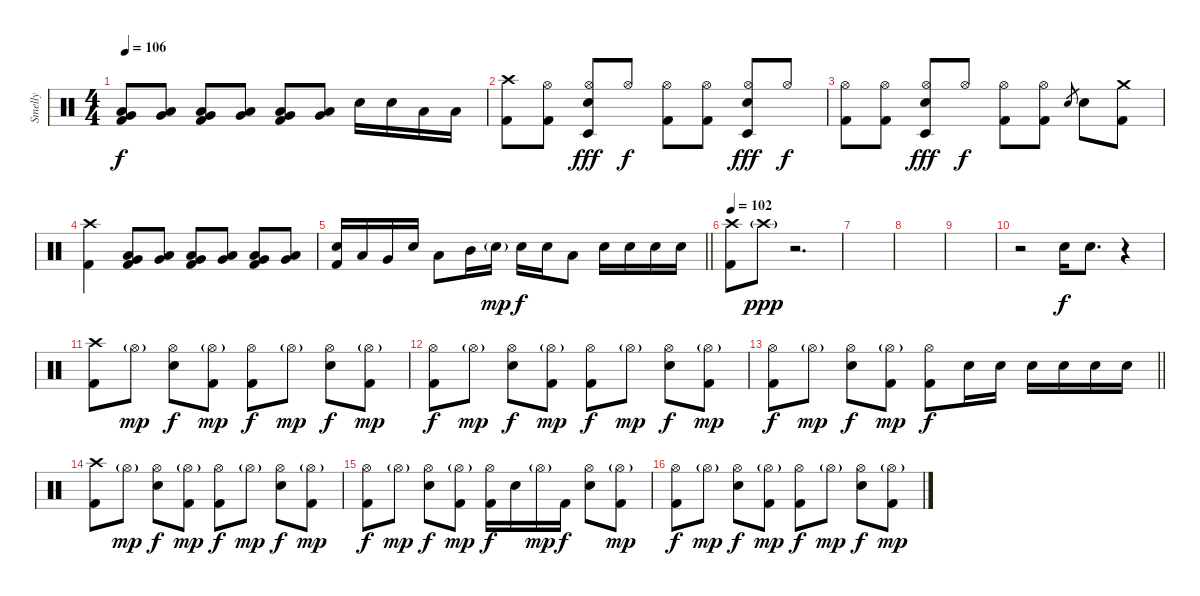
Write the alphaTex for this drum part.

\track ("Smelly" "Smelly") {instrument percussion}
\staff {score}
\articulation defaults
\ts (4 4)
\tempo 106
\clef neutral
\ks c
("Very Low Tom (hit)" "Low Floor Tom (hit)" "Kick (hit) 2").8{dy f} ("Very Low Tom (hit)" "Low Floor Tom (hit)").8 ("Very Low Tom (hit)" "Low Floor Tom (hit)" "Kick (hit) 2").8 ("Very Low Tom (hit)" "Low Floor Tom (hit)").8 ("Very Low Tom (hit)" "Low Floor Tom (hit)" "Kick (hit) 2").8 ("Very Low Tom (hit)" "Low Floor Tom (hit)").8 "Electric Snare (hit)".16 "Electric Snare (hit)".16 "Low Tom (hit)".16 "Low Tom (hit)".16 |
("Crash high (hit)" "Kick (hit) 2").8 ("Hi-Hat (open)" "Kick (hit) 2").8 ("Hi-Hat (open)" "Electric Snare (hit)" "Timbale low (hit)").8{dy fff} "Hi-Hat (open)".8{dy f} ("Hi-Hat (open)" "Kick (hit) 2").8 ("Hi-Hat (open)" "Kick (hit) 2").8 ("Hi-Hat (open)" "Electric Snare (hit)" "Timbale low (hit)").8{dy fff} "Hi-Hat (open)".8{dy f} |
("Hi-Hat (open)" "Kick (hit) 2").8 ("Hi-Hat (open)" "Kick (hit) 2").8 ("Hi-Hat (open)" "Electric Snare (hit)" "Timbale low (hit)").8{dy fff} "Hi-Hat (open)".8{dy f} ("Hi-Hat (open)" "Kick (hit) 2").8 ("Hi-Hat (open)" "Kick (hit) 2").8 "Electric Snare (hit)".8{gr} "Electric Snare (hit)".8 ("Crash medium (hit)" "Kick (hit) 2").8 |
("Crash high (hit)" "Kick (hit) 2").4 ("Very Low Tom (hit)" "Low Floor Tom (hit)" "Kick (hit) 2").8 ("Very Low Tom (hit)" "Low Floor Tom (hit)").8 ("Very Low Tom (hit)" "Low Floor Tom (hit)" "Kick (hit) 2").8 ("Very Low Tom (hit)" "Low Floor Tom (hit)").8 ("Very Low Tom (hit)" "Low Floor Tom (hit)" "Kick (hit) 2").8 ("Very Low Tom (hit)" "Low Floor Tom (hit)").8 |
\barLineRight lightlight
("Electric Snare (hit)" "Kick (hit) 2").16 "Low Tom (hit)".16 "Very Low Tom (hit)".16 "Electric Snare (hit)".16 "Low Tom (hit)".8 "Mid Tom (hit)".16 "Electric Snare (hit)"{g}.16{dy mp} "Electric Snare (hit)".16{dy f} "Electric Snare (hit)".16 "Low Tom (hit)".8 "Electric Snare (hit)".16 "Electric Snare (hit)".16 "Electric Snare (hit)".16 "Electric Snare (hit)".16 |
\section ("" "")
\tempo 102
("Crash high (hit)" "Kick (hit) 2").8 "Crash high (hit)"{g}.8{dy ppp} r.2{d} |
|
|
|
r.2 "Electric Snare (hit)".16{dy f} "Electric Snare (hit)".8{d} r.4 |
("Crash high (hit)" "Kick (hit) 2").8 "Hi-Hat (open)"{g}.8{dy mp} ("Hi-Hat (open)" "Electric Snare (hit)").8{dy f} ("Hi-Hat (open)"{g} "Kick (hit) 2").8{dy mp} ("Hi-Hat (open)" "Kick (hit) 2").8{dy f} "Hi-Hat (open)"{g}.8{dy mp} ("Hi-Hat (open)" "Electric Snare (hit)").8{dy f} ("Hi-Hat (open)"{g} "Kick (hit) 2").8{dy mp} |
("Hi-Hat (open)" "Kick (hit) 2").8{dy f} "Hi-Hat (open)"{g}.8{dy mp} ("Hi-Hat (open)" "Electric Snare (hit)").8{dy f} ("Hi-Hat (open)"{g} "Kick (hit) 2").8{dy mp} ("Hi-Hat (open)" "Kick (hit) 2").8{dy f} "Hi-Hat (open)"{g}.8{dy mp} ("Hi-Hat (open)" "Electric Snare (hit)").8{dy f} ("Hi-Hat (open)"{g} "Kick (hit) 2").8{dy mp} |
\barLineRight lightlight
("Hi-Hat (open)" "Kick (hit) 2").8{dy f} "Hi-Hat (open)"{g}.8{dy mp} ("Hi-Hat (open)" "Electric Snare (hit)").8{dy f} ("Hi-Hat (open)"{g} "Kick (hit) 2").8{dy mp} ("Hi-Hat (open)" "Kick (hit) 2").8{dy f} "Electric Snare (hit)".16 "Electric Snare (hit)".16 "Electric Snare (hit)".16 "Electric Snare (hit)".16 "Electric Snare (hit)".16 "Electric Snare (hit)".16 |
\section ("" "")
("Crash high (hit)" "Kick (hit) 2").8 "Hi-Hat (open)"{g}.8{dy mp} ("Hi-Hat (open)" "Electric Snare (hit)").8{dy f} ("Hi-Hat (open)"{g} "Kick (hit) 2").8{dy mp} ("Hi-Hat (open)" "Kick (hit) 2").8{dy f} "Hi-Hat (open)"{g}.8{dy mp} ("Hi-Hat (open)" "Electric Snare (hit)").8{dy f} ("Hi-Hat (open)"{g} "Kick (hit) 2").8{dy mp} |
("Hi-Hat (open)" "Kick (hit) 2").8{dy f} "Hi-Hat (open)"{g}.8{dy mp} ("Hi-Hat (open)" "Electric Snare (hit)").8{dy f} ("Hi-Hat (open)"{g} "Kick (hit) 2").8{dy mp} ("Hi-Hat (open)" "Kick (hit) 2").16{dy f} "Electric Snare (hit)".16 "Hi-Hat (open)"{g}.16{dy mp} "Kick (hit) 2".16{dy f} ("Hi-Hat (open)" "Electric Snare (hit)").8 ("Hi-Hat (open)"{g} "Kick (hit) 2").8{dy mp} |
("Hi-Hat (open)" "Kick (hit) 2").8{dy f} "Hi-Hat (open)"{g}.8{dy mp} ("Hi-Hat (open)" "Electric Snare (hit)").8{dy f} ("Hi-Hat (open)"{g} "Kick (hit) 2").8{dy mp} ("Hi-Hat (open)" "Kick (hit) 2").8{dy f} "Hi-Hat (open)"{g}.8{dy mp} ("Hi-Hat (open)" "Electric Snare (hit)").8{dy f} ("Hi-Hat (open)"{g} "Kick (hit) 2").8{dy mp}
